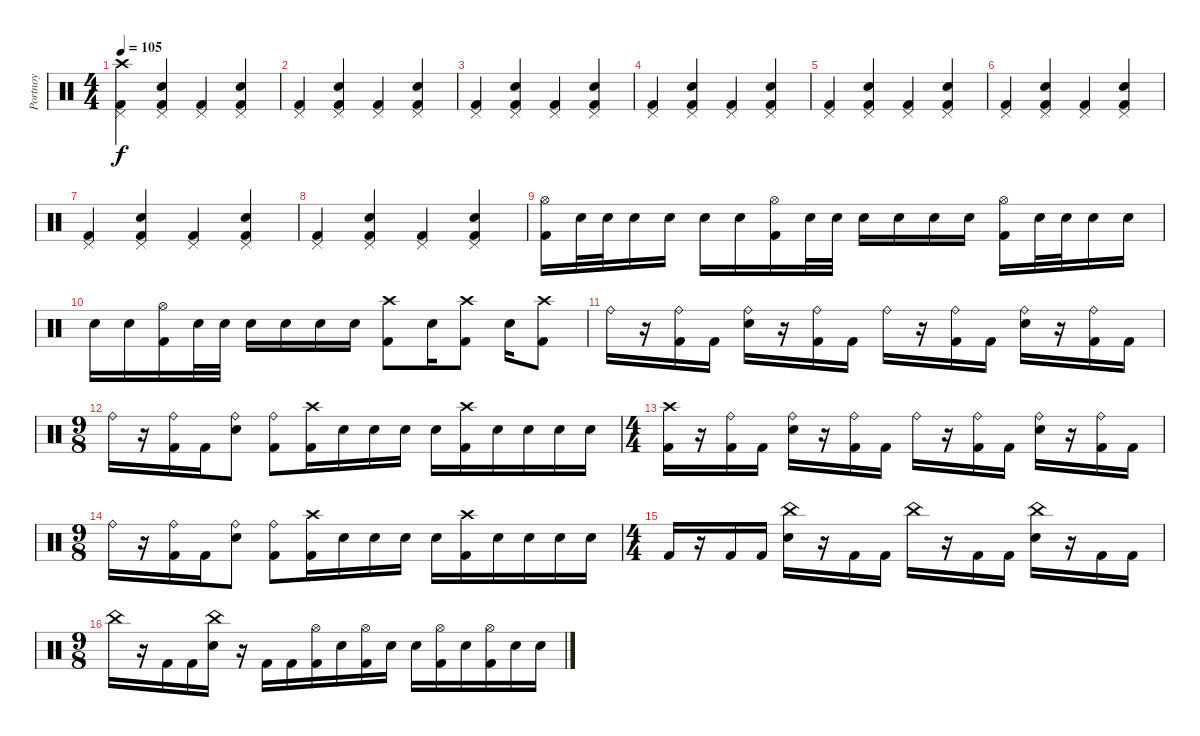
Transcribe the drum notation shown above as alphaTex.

\track ("Portnoy" "Portnoy") {instrument percussion}
\staff {score}
\articulation defaults
\ts (4 4)
\tempo 105
\clef neutral
\ks c
("Crash high (hit)" "Pedal Hi-Hat (hit)" "Kick (hit) 2").4{dy f} ("Pedal Hi-Hat (hit)" "Electric Snare (hit)" "Kick (hit) 2").4 ("Pedal Hi-Hat (hit)" "Kick (hit) 2").4 ("Pedal Hi-Hat (hit)" "Electric Snare (hit)" "Kick (hit) 2").4 |
("Pedal Hi-Hat (hit)" "Kick (hit) 2").4 ("Pedal Hi-Hat (hit)" "Electric Snare (hit)" "Kick (hit) 2").4 ("Pedal Hi-Hat (hit)" "Kick (hit) 2").4 ("Pedal Hi-Hat (hit)" "Electric Snare (hit)" "Kick (hit) 2").4 |
("Pedal Hi-Hat (hit)" "Kick (hit) 2").4 ("Pedal Hi-Hat (hit)" "Electric Snare (hit)" "Kick (hit) 2").4 ("Pedal Hi-Hat (hit)" "Kick (hit) 2").4 ("Pedal Hi-Hat (hit)" "Electric Snare (hit)" "Kick (hit) 2").4 |
("Pedal Hi-Hat (hit)" "Kick (hit) 2").4 ("Pedal Hi-Hat (hit)" "Electric Snare (hit)" "Kick (hit) 2").4 ("Pedal Hi-Hat (hit)" "Kick (hit) 2").4 ("Pedal Hi-Hat (hit)" "Electric Snare (hit)" "Kick (hit) 2").4 |
("Pedal Hi-Hat (hit)" "Kick (hit) 2").4 ("Pedal Hi-Hat (hit)" "Electric Snare (hit)" "Kick (hit) 2").4 ("Pedal Hi-Hat (hit)" "Kick (hit) 2").4 ("Pedal Hi-Hat (hit)" "Electric Snare (hit)" "Kick (hit) 2").4 |
("Pedal Hi-Hat (hit)" "Kick (hit) 2").4 ("Pedal Hi-Hat (hit)" "Electric Snare (hit)" "Kick (hit) 2").4 ("Pedal Hi-Hat (hit)" "Kick (hit) 2").4 ("Pedal Hi-Hat (hit)" "Electric Snare (hit)" "Kick (hit) 2").4 |
("Pedal Hi-Hat (hit)" "Kick (hit) 2").4 ("Pedal Hi-Hat (hit)" "Electric Snare (hit)" "Kick (hit) 2").4 ("Pedal Hi-Hat (hit)" "Kick (hit) 2").4 ("Pedal Hi-Hat (hit)" "Electric Snare (hit)" "Kick (hit) 2").4 |
("Pedal Hi-Hat (hit)" "Kick (hit) 2").4 ("Pedal Hi-Hat (hit)" "Electric Snare (hit)" "Kick (hit) 2").4 ("Pedal Hi-Hat (hit)" "Kick (hit) 2").4 ("Pedal Hi-Hat (hit)" "Electric Snare (hit)" "Kick (hit) 2").4 |
("Hi-Hat (open)" "Kick (hit) 2").16 "Electric Snare (hit)".32 "Electric Snare (hit)".32 "Electric Snare (hit)".16 "Electric Snare (hit)".16 "Electric Snare (hit)".16 "Electric Snare (hit)".16 ("Hi-Hat (open)" "Kick (hit) 2").16 "Electric Snare (hit)".32 "Electric Snare (hit)".32 "Electric Snare (hit)".16 "Electric Snare (hit)".16 "Electric Snare (hit)".16 "Electric Snare (hit)".16 ("Hi-Hat (open)" "Kick (hit) 2").16 "Electric Snare (hit)".32 "Electric Snare (hit)".32 "Electric Snare (hit)".16 "Electric Snare (hit)".16 |
"Electric Snare (hit)".16 "Electric Snare (hit)".16 ("Hi-Hat (open)" "Kick (hit) 2").16 "Electric Snare (hit)".32 "Electric Snare (hit)".32 "Electric Snare (hit)".16 "Electric Snare (hit)".16 "Electric Snare (hit)".16 "Electric Snare (hit)".16 ("Crash high (hit)" "Kick (hit) 2").8 "Electric Snare (hit)".16 ("Crash high (hit)" "Kick (hit) 2").8 "Electric Snare (hit)".16 ("Crash high (hit)" "Kick (hit) 2").8 |
"Ride (bell)".16 r.16 ("Ride (bell)" "Kick (hit) 2").16 "Kick (hit) 2".16 ("Ride (bell)" "Electric Snare (hit)").16 r.16 ("Ride (bell)" "Kick (hit) 2").16 "Kick (hit) 2".16 "Ride (bell)".16 r.16 ("Ride (bell)" "Kick (hit) 2").16 "Kick (hit) 2".16 ("Ride (bell)" "Electric Snare (hit)").16 r.16 ("Ride (bell)" "Kick (hit) 2").16 "Kick (hit) 2".16 |
\ts (9 8)
"Ride (bell)".16 r.16 ("Ride (bell)" "Kick (hit) 2").16 "Kick (hit) 2".16 ("Ride (bell)" "Electric Snare (hit)").8 ("Ride (bell)" "Kick (hit) 2").8 ("Crash high (hit)" "Kick (hit) 2").16 "Electric Snare (hit)".16 "Electric Snare (hit)".16 "Electric Snare (hit)".16 "Electric Snare (hit)".16 ("Crash high (hit)" "Kick (hit) 2").16 "Electric Snare (hit)".16 "Electric Snare (hit)".16 "Electric Snare (hit)".16 "Electric Snare (hit)".16 |
\ts (4 4)
("Crash high (hit)" "Kick (hit) 2").16 r.16 ("Ride (bell)" "Kick (hit) 2").16 "Kick (hit) 2".16 ("Ride (bell)" "Electric Snare (hit)").16 r.16 ("Ride (bell)" "Kick (hit) 2").16 "Kick (hit) 2".16 "Ride (bell)".16 r.16 ("Ride (bell)" "Kick (hit) 2").16 "Kick (hit) 2".16 ("Ride (bell)" "Electric Snare (hit)").16 r.16 ("Ride (bell)" "Kick (hit) 2").16 "Kick (hit) 2".16 |
\ts (9 8)
"Ride (bell)".16 r.16 ("Ride (bell)" "Kick (hit) 2").16 "Kick (hit) 2".16 ("Ride (bell)" "Electric Snare (hit)").8 ("Ride (bell)" "Kick (hit) 2").8 ("Crash high (hit)" "Kick (hit) 2").16 "Electric Snare (hit)".16 "Electric Snare (hit)".16 "Electric Snare (hit)".16 "Electric Snare (hit)".16 ("Crash high (hit)" "Kick (hit) 2").16 "Electric Snare (hit)".16 "Electric Snare (hit)".16 "Electric Snare (hit)".16 "Electric Snare (hit)".16 |
\ts (4 4)
"Kick (hit) 2".16 r.16 "Kick (hit) 2".16 "Kick (hit) 2".16 ("China (hit)" "Electric Snare (hit)").16 r.16 "Kick (hit) 2".16 "Kick (hit) 2".16 "China (hit)".16 r.16 "Kick (hit) 2".16 "Kick (hit) 2".16 ("China (hit)" "Electric Snare (hit)").16 r.16 "Kick (hit) 2".16 "Kick (hit) 2".16 |
\ts (9 8)
"China (hit)".16 r.16 "Kick (hit) 2".16 "Kick (hit) 2".16 ("China (hit)" "Electric Snare (hit)").16 r.16 "Kick (hit) 2".16 "Kick (hit) 2".16 ("Hi-Hat (open)" "Kick (hit) 2").16 "Electric Snare (hit)".16 ("Hi-Hat (open)" "Kick (hit) 2").16 "Electric Snare (hit)".16 "Electric Snare (hit)".16 ("Hi-Hat (open)" "Kick (hit) 2").16 "Electric Snare (hit)".16 ("Hi-Hat (open)" "Kick (hit) 2").16 "Electric Snare (hit)".16 "Electric Snare (hit)".16
